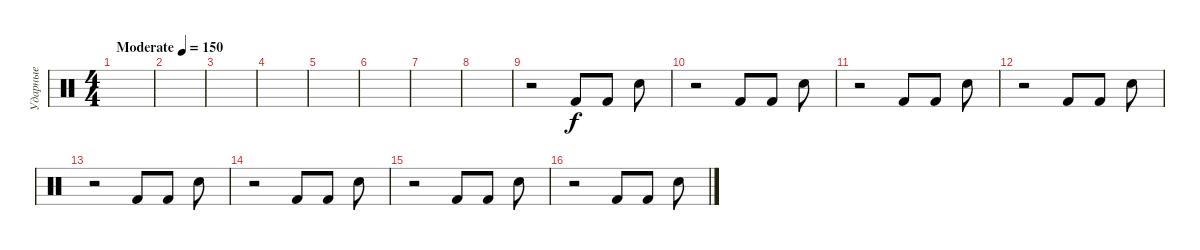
\track ("Ударные" "Ударные") {instrument percussion}
\staff {score}
\articulation defaults
\ts (4 4)
\tempo (150 "Moderate")
\clef neutral
\ks c
|
|
|
|
|
|
|
|
r.2 "Kick (hit) 2".8 "Kick (hit) 2".8 "Snare (hit) 2".8 |
r.2 "Kick (hit) 2".8 "Kick (hit) 2".8 "Snare (hit) 2".8 |
r.2 "Kick (hit) 2".8 "Kick (hit) 2".8 "Snare (hit) 2".8 |
r.2 "Kick (hit) 2".8 "Kick (hit) 2".8 "Snare (hit) 2".8 |
r.2 "Kick (hit) 2".8 "Kick (hit) 2".8 "Snare (hit) 2".8 |
r.2 "Kick (hit) 2".8 "Kick (hit) 2".8 "Snare (hit) 2".8 |
r.2 "Kick (hit) 2".8 "Kick (hit) 2".8 "Snare (hit) 2".8 |
r.2 "Kick (hit) 2".8 "Kick (hit) 2".8 "Snare (hit) 2".8
